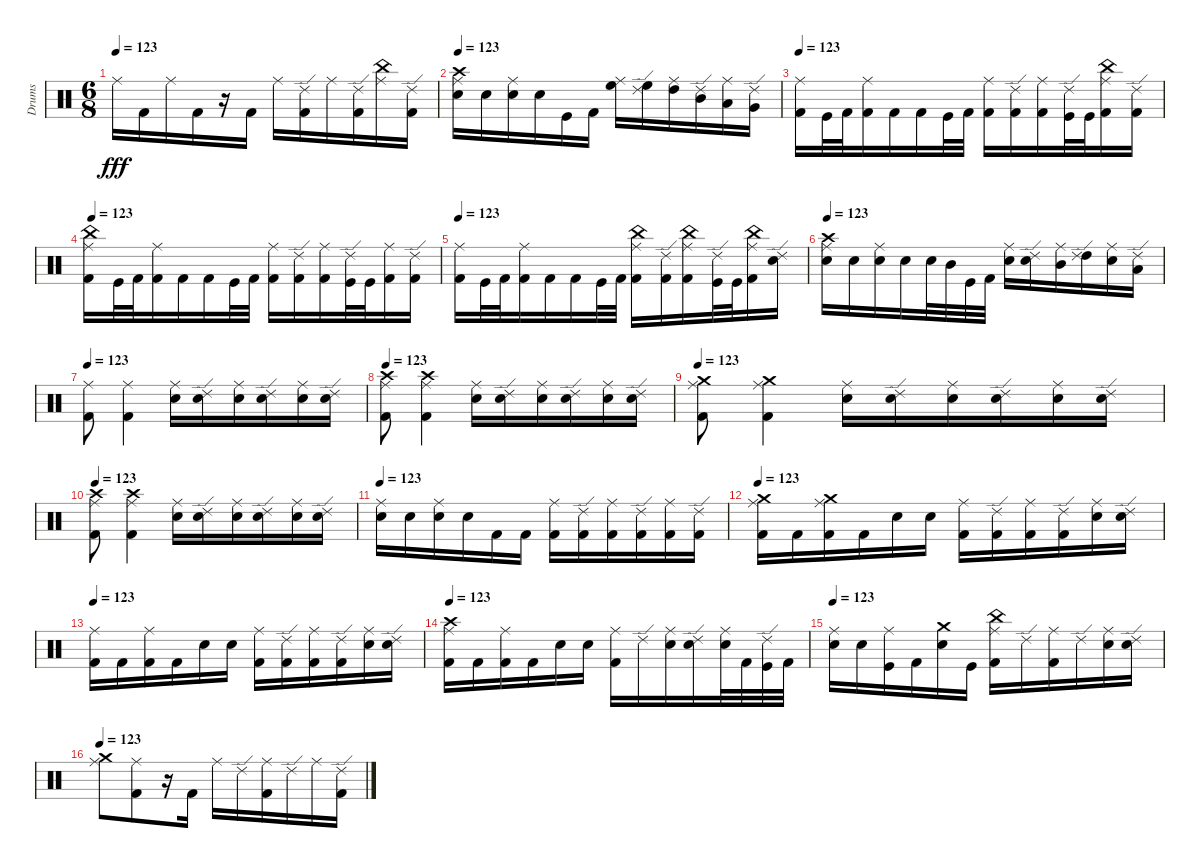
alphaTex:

\track ("Drums" "Drums") {instrument percussion}
\staff {score}
\articulation defaults
\ts (6 8)
\tempo 123
\clef neutral
\ks c "Ride (middle)".16{dy fff} "Kick (hit) 2".16 "Ride (middle)".16 "Kick (hit) 2".16
r.16 "Kick (hit) 2".16 "Ride (middle)".16 ("Kick (hit) 2" "Ride (edge) 2").16 "Ride (middle)".16 ("Kick (hit) 2" "Ride (edge) 2").16 ("Ride (middle)" "China (hit)").16 ("Kick (hit) 2" "Ride (edge) 2").16 |
\tempo 123
("Snare (hit) 2" "Ride (middle)" "Crash high (hit)").16 "Snare (hit) 2".16 ("Snare (hit) 2" "Ride (middle)").16 "Snare (hit) 2".16 "Kick (hit)".16 "Kick (hit) 2".16 ("High Floor Tom (hit)" "Ride (middle)").16 ("High Floor Tom (hit)" "Ride (edge) 2").16 ("High Tom (hit)" "Ride (middle)").16 ("Mid Tom (hit)" "Ride (edge) 2").16 ("Low Tom (hit)" "Ride (middle)").16 ("Very Low Tom (hit)" "Ride (edge) 2").16 |
\tempo 123
("Kick (hit) 2" "Ride (middle)").16 "Kick (hit)".32 "Kick (hit) 2".32 ("Kick (hit) 2" "Ride (middle)").16 "Kick (hit) 2".16 "Kick (hit) 2".16 "Kick (hit)".32 "Kick (hit) 2".32 ("Kick (hit) 2" "Ride (middle)").16 ("Kick (hit) 2" "Ride (edge) 2").16 ("Kick (hit) 2" "Ride (middle)").16 ("Kick (hit)" "Ride (edge) 2").32 "Kick (hit)".32 ("Kick (hit) 2" "Ride (middle)" "China (hit)").16 ("Kick (hit) 2" "Ride (edge) 2").16 |
\tempo 123
("Kick (hit) 2" "Ride (middle)" "China (hit)").16 "Kick (hit)".32 "Kick (hit) 2".32 ("Kick (hit) 2" "Ride (middle)").16 "Kick (hit) 2".16 "Kick (hit) 2".16 "Kick (hit)".32 "Kick (hit) 2".32 ("Kick (hit) 2" "Ride (middle)").16 ("Kick (hit) 2" "Ride (edge) 2").16 ("Kick (hit) 2" "Ride (middle)").16 ("Kick (hit)" "Ride (edge) 2").32 "Kick (hit)".32 ("Kick (hit) 2" "Ride (middle)").16 ("Kick (hit) 2" "Ride (edge) 2").16 |
\tempo 123
("Kick (hit) 2" "Ride (middle)").16 "Kick (hit)".32 "Kick (hit) 2".32 ("Kick (hit) 2" "Ride (middle)").16 "Kick (hit) 2".16 "Kick (hit) 2".16 "Kick (hit)".32 "Kick (hit) 2".32 ("Kick (hit) 2" "Ride (middle)" "China (hit)").16 ("Kick (hit) 2" "Ride (edge) 2").16 ("Kick (hit) 2" "Ride (middle)" "China (hit)").16 ("Kick (hit)" "Ride (edge) 2").32 "Kick (hit)".32 ("Kick (hit) 2" "Ride (middle)" "China (hit)").16 ("Snare (hit) 2" "Ride (edge) 2").16 |
\tempo 123
("Snare (hit) 2" "Ride (middle)" "Crash high (hit)").16 "Snare (hit) 2".16 ("Electric Snare (hit)" "Ride (middle)").16 "Snare (hit) 2".16 "Snare (hit) 2".32 "Mid Tom (hit)".32 "Kick (hit)".32 "Kick (hit) 2".32 ("Snare (hit) 2" "Ride (middle)").16 ("Snare (hit) 2" "Ride (edge) 2").16 ("Mid Tom (hit)" "Ride (middle)").16 ("High Tom (hit)" "Ride (edge) 2").16 ("Snare (hit) 2" "Ride (middle)").16 ("Low Tom (hit)" "Ride (edge) 2").16 |
\tempo 123
("Kick (hit) 2" "Ride (middle)").8 ("Kick (hit) 2" "Ride (middle)").4 ("Electric Snare (hit)" "Ride (middle)").16 ("Electric Snare (hit)" "Ride (edge) 2").16 ("Electric Snare (hit)" "Ride (middle)").16 ("Electric Snare (hit)" "Ride (edge) 2").16 ("Electric Snare (hit)" "Ride (middle)").16 ("Electric Snare (hit)" "Ride (edge) 2").16 |
\tempo 123
("Kick (hit) 2" "Ride (middle)" "Crash high (hit)").8 ("Kick (hit) 2" "Ride (middle)" "Crash high (hit)").4 ("Electric Snare (hit)" "Ride (middle)").16 ("Electric Snare (hit)" "Ride (edge) 2").16 ("Electric Snare (hit)" "Ride (middle)").16 ("Electric Snare (hit)" "Ride (edge) 2").16 ("Electric Snare (hit)" "Ride (middle)").16 ("Electric Snare (hit)" "Ride (edge) 2").16 |
\tempo 123
("Kick (hit) 2" "Ride (middle)" "Crash medium (hit)").8 ("Kick (hit) 2" "Ride (middle)" "Crash medium (hit)").4 ("Electric Snare (hit)" "Ride (middle)").16 ("Electric Snare (hit)" "Ride (edge) 2").16 ("Electric Snare (hit)" "Ride (middle)").16 ("Electric Snare (hit)" "Ride (edge) 2").16 ("Electric Snare (hit)" "Ride (middle)").16 ("Electric Snare (hit)" "Ride (edge) 2").16 |
\tempo 123
("Kick (hit) 2" "Ride (middle)" "Crash high (hit)").8 ("Kick (hit) 2" "Ride (middle)" "Crash high (hit)").4 ("Electric Snare (hit)" "Ride (middle)").16 ("Electric Snare (hit)" "Ride (edge) 2").16 ("Electric Snare (hit)" "Ride (middle)").16 ("Electric Snare (hit)" "Ride (edge) 2").16 ("Electric Snare (hit)" "Ride (middle)").16 ("Electric Snare (hit)" "Ride (edge) 2").16 |
\tempo 123
("Snare (hit) 2" "Ride (middle)").16 "Snare (hit) 2".16 ("Snare (hit) 2" "Ride (middle)").16 "Snare (hit) 2".16 "Kick (hit) 2".16 "Kick (hit) 2".16 ("Kick (hit) 2" "Ride (middle)").16 ("Kick (hit) 2" "Ride (edge) 2").16 ("Kick (hit) 2" "Ride (middle)").16 ("Kick (hit) 2" "Ride (edge) 2").16 ("Kick (hit) 2" "Ride (middle)").16 ("Kick (hit) 2" "Ride (edge) 2").16 |
\tempo 123
("Kick (hit) 2" "Ride (middle)" "Crash medium (hit)").16 "Kick (hit) 2".16 ("Kick (hit) 2" "Ride (middle)" "Crash medium (hit)").16 "Kick (hit) 2".16 "Electric Snare (hit)".16 "Electric Snare (hit)".16 ("Kick (hit) 2" "Ride (middle)").16 ("Kick (hit) 2" "Ride (edge) 2").16 ("Kick (hit) 2" "Ride (middle)").16 ("Kick (hit) 2" "Ride (edge) 2").16 ("Electric Snare (hit)" "Ride (middle)").16 ("Snare (hit) 2" "Ride (edge) 2").16 |
\tempo 123
("Kick (hit) 2" "Ride (middle)").16 "Kick (hit) 2".16 ("Kick (hit) 2" "Ride (middle)").16 "Kick (hit) 2".16 "Electric Snare (hit)".16 "Electric Snare (hit)".16 ("Kick (hit) 2" "Ride (middle)").16 ("Kick (hit) 2" "Ride (edge) 2").16 ("Kick (hit) 2" "Ride (middle)").16 ("Kick (hit) 2" "Ride (edge) 2").16 ("Electric Snare (hit)" "Ride (middle)").16 ("Snare (hit) 2" "Ride (edge) 2").16 |
\tempo 123
("Kick (hit) 2" "Ride (middle)" "Crash high (hit)").16 "Kick (hit) 2".16 ("Kick (hit) 2" "Ride (middle)").16 "Kick (hit) 2".16 "Electric Snare (hit)".16 "Electric Snare (hit)".16 ("Kick (hit) 2" "Ride (middle)").16 "Ride (edge) 2".16 ("Snare (hit) 2" "Ride (middle)").16 ("Snare (hit) 2" "Ride (edge) 2").16 ("Snare (hit) 2" "Ride (middle)").32 "Kick (hit) 2".32 ("Kick (hit)" "Ride (edge) 2").32 "Kick (hit) 2".32 |
\tempo 123
("Snare (hit) 2" "Ride (middle)").16 "Snare (hit) 2".16 ("Kick (hit)" "Ride (middle)").16 "Kick (hit) 2".16 ("Snare (hit) 2" "Crash medium (hit)").16 "Kick (hit)".16 ("Kick (hit) 2" "Ride (middle)" "China (hit)").16 "Ride (edge) 2".16 ("Kick (hit) 2" "Ride (middle)").16 "Ride (edge) 2".16 ("Snare (hit) 2" "Ride (middle)").16 ("Snare (hit) 2" "Ride (edge) 2").16 |
\tempo 123
("Ride (middle)" "Crash medium (hit)").8 ("Kick (hit) 2" "Ride (middle)").8 r.16 "Kick (hit) 2".16 "Ride (middle)".16 "Ride (edge) 2".16 ("Kick (hit) 2" "Ride (middle)").16 "Ride (edge) 2".16 "Ride (middle)".16 ("Kick (hit) 2" "Ride (edge) 2").16
